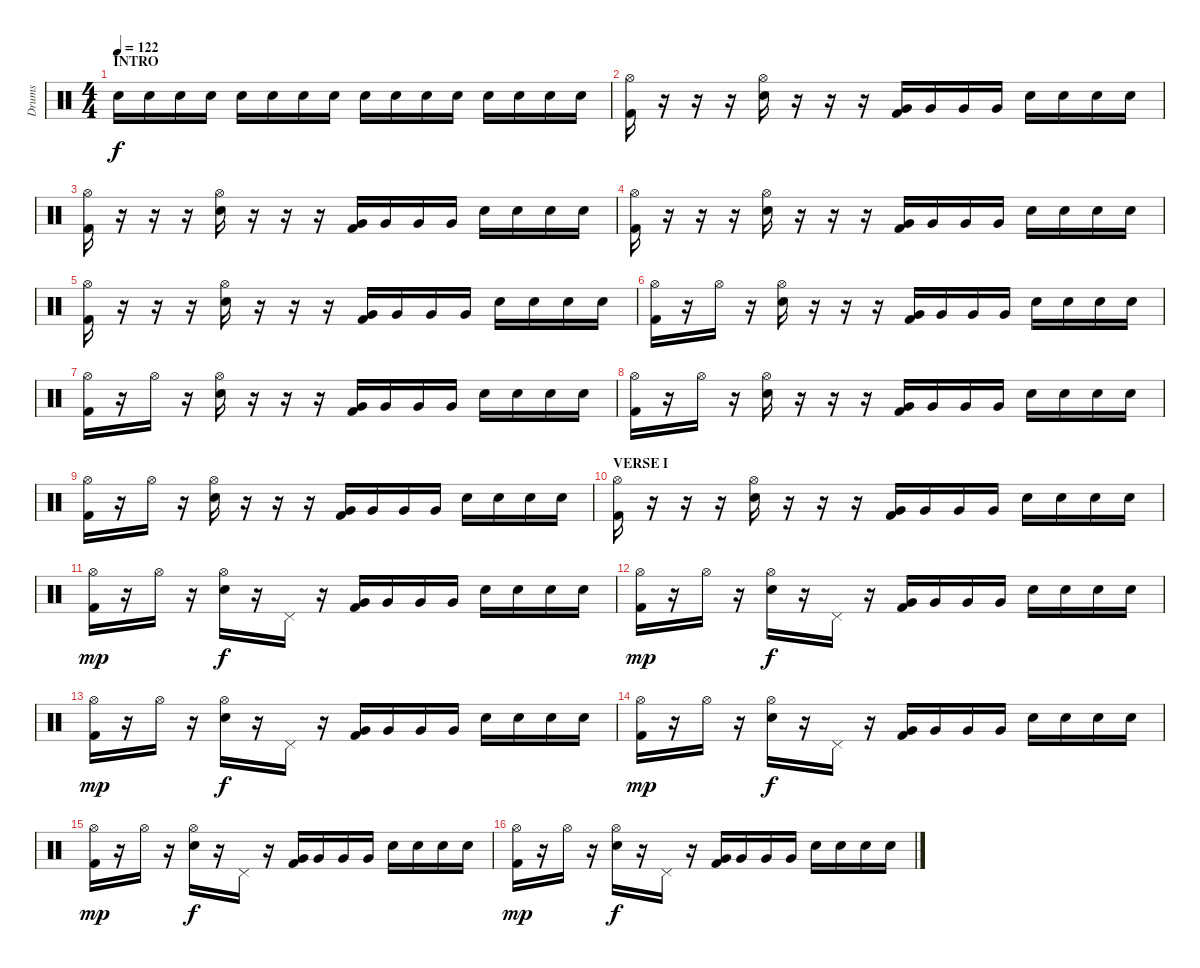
\track ("Drums" "Drums") {instrument percussion}
\staff {score}
\articulation defaults
\ts (4 4)
\section ("" "INTRO")
\tempo 122
\clef neutral
\ks c "Electric Snare (hit)".16{dy f} "Electric Snare (hit)".16 "Electric Snare (hit)".16 "Electric Snare (hit)".16 "Electric Snare (hit)".16 "Electric Snare (hit)".16 "Electric Snare (hit)".16 "Electric Snare (hit)".16 "Electric Snare (hit)".16 "Electric Snare (hit)".16 "Electric Snare (hit)".16 "Electric Snare (hit)".16 "Electric Snare (hit)".16 "Electric Snare (hit)".16 "Electric Snare (hit)".16 "Electric Snare (hit)".16
|
("Hi-Hat (open)" "Kick (hit) 2").16 r.16 r.16 r.16 ("Hi-Hat (open)" "Electric Snare (hit)").16 r.16 r.16 r.16 ("Very Low Tom (hit)" "Kick (hit) 2").16 "Very Low Tom (hit)".16 "Very Low Tom (hit)".16 "Very Low Tom (hit)".16 "Electric Snare (hit)".16 "Electric Snare (hit)".16 "Electric Snare (hit)".16 "Electric Snare (hit)".16 |
("Hi-Hat (open)" "Kick (hit) 2").16 r.16 r.16 r.16 ("Hi-Hat (open)" "Electric Snare (hit)").16 r.16 r.16 r.16 ("Very Low Tom (hit)" "Kick (hit) 2").16 "Very Low Tom (hit)".16 "Very Low Tom (hit)".16 "Very Low Tom (hit)".16 "Electric Snare (hit)".16 "Electric Snare (hit)".16 "Electric Snare (hit)".16 "Electric Snare (hit)".16 |
("Hi-Hat (open)" "Kick (hit) 2").16 r.16 r.16 r.16 ("Hi-Hat (open)" "Electric Snare (hit)").16 r.16 r.16 r.16 ("Very Low Tom (hit)" "Kick (hit) 2").16 "Very Low Tom (hit)".16 "Very Low Tom (hit)".16 "Very Low Tom (hit)".16 "Electric Snare (hit)".16 "Electric Snare (hit)".16 "Electric Snare (hit)".16 "Electric Snare (hit)".16 |
("Hi-Hat (open)" "Kick (hit) 2").16 r.16 r.16 r.16 ("Hi-Hat (open)" "Electric Snare (hit)").16 r.16 r.16 r.16 ("Very Low Tom (hit)" "Kick (hit) 2").16 "Very Low Tom (hit)".16 "Very Low Tom (hit)".16 "Very Low Tom (hit)".16 "Electric Snare (hit)".16 "Electric Snare (hit)".16 "Electric Snare (hit)".16 "Electric Snare (hit)".16 |
("Hi-Hat (open)" "Kick (hit) 2").16 r.16 "Hi-Hat (open)".16 r.16 ("Hi-Hat (open)" "Electric Snare (hit)").16 r.16 r.16 r.16 ("Very Low Tom (hit)" "Kick (hit) 2").16 "Very Low Tom (hit)".16 "Very Low Tom (hit)".16 "Very Low Tom (hit)".16 "Electric Snare (hit)".16 "Electric Snare (hit)".16 "Electric Snare (hit)".16 "Electric Snare (hit)".16 |
("Hi-Hat (open)" "Kick (hit) 2").16 r.16 "Hi-Hat (open)".16 r.16 ("Hi-Hat (open)" "Electric Snare (hit)").16 r.16 r.16 r.16 ("Very Low Tom (hit)" "Kick (hit) 2").16 "Very Low Tom (hit)".16 "Very Low Tom (hit)".16 "Very Low Tom (hit)".16 "Electric Snare (hit)".16 "Electric Snare (hit)".16 "Electric Snare (hit)".16 "Electric Snare (hit)".16 |
("Hi-Hat (open)" "Kick (hit) 2").16 r.16 "Hi-Hat (open)".16 r.16 ("Hi-Hat (open)" "Electric Snare (hit)").16 r.16 r.16 r.16 ("Very Low Tom (hit)" "Kick (hit) 2").16 "Very Low Tom (hit)".16 "Very Low Tom (hit)".16 "Very Low Tom (hit)".16 "Electric Snare (hit)".16 "Electric Snare (hit)".16 "Electric Snare (hit)".16 "Electric Snare (hit)".16 |
("Hi-Hat (open)" "Kick (hit) 2").16 r.16 "Hi-Hat (open)".16 r.16 ("Hi-Hat (open)" "Electric Snare (hit)").16 r.16 r.16 r.16 ("Very Low Tom (hit)" "Kick (hit) 2").16 "Very Low Tom (hit)".16 "Very Low Tom (hit)".16 "Very Low Tom (hit)".16 "Electric Snare (hit)".16 "Electric Snare (hit)".16 "Electric Snare (hit)".16 "Electric Snare (hit)".16 |
\section ("" "VERSE I")
("Hi-Hat (open)" "Kick (hit) 2").16 r.16 r.16 r.16 ("Hi-Hat (open)" "Electric Snare (hit)").16 r.16 r.16 r.16 ("Very Low Tom (hit)" "Kick (hit) 2").16 "Very Low Tom (hit)".16 "Very Low Tom (hit)".16 "Very Low Tom (hit)".16 "Electric Snare (hit)".16 "Electric Snare (hit)".16 "Electric Snare (hit)".16 "Electric Snare (hit)".16 |
("Hi-Hat (open)" "Kick (hit) 2").16{dy mp} r.16 "Hi-Hat (open)".16 r.16 ("Hi-Hat (open)" "Electric Snare (hit)").16{dy f} r.16 "Pedal Hi-Hat (hit)".16 r.16 ("Very Low Tom (hit)" "Kick (hit) 2").16 "Very Low Tom (hit)".16 "Very Low Tom (hit)".16 "Very Low Tom (hit)".16 "Electric Snare (hit)".16 "Electric Snare (hit)".16 "Electric Snare (hit)".16 "Electric Snare (hit)".16 |
("Hi-Hat (open)" "Kick (hit) 2").16{dy mp} r.16 "Hi-Hat (open)".16 r.16 ("Hi-Hat (open)" "Electric Snare (hit)").16{dy f} r.16 "Pedal Hi-Hat (hit)".16 r.16 ("Very Low Tom (hit)" "Kick (hit) 2").16 "Very Low Tom (hit)".16 "Very Low Tom (hit)".16 "Very Low Tom (hit)".16 "Electric Snare (hit)".16 "Electric Snare (hit)".16 "Electric Snare (hit)".16 "Electric Snare (hit)".16 |
("Hi-Hat (open)" "Kick (hit) 2").16{dy mp} r.16 "Hi-Hat (open)".16 r.16 ("Hi-Hat (open)" "Electric Snare (hit)").16{dy f} r.16 "Pedal Hi-Hat (hit)".16 r.16 ("Very Low Tom (hit)" "Kick (hit) 2").16 "Very Low Tom (hit)".16 "Very Low Tom (hit)".16 "Very Low Tom (hit)".16 "Electric Snare (hit)".16 "Electric Snare (hit)".16 "Electric Snare (hit)".16 "Electric Snare (hit)".16 |
("Hi-Hat (open)" "Kick (hit) 2").16{dy mp} r.16 "Hi-Hat (open)".16 r.16 ("Hi-Hat (open)" "Electric Snare (hit)").16{dy f} r.16 "Pedal Hi-Hat (hit)".16 r.16 ("Very Low Tom (hit)" "Kick (hit) 2").16 "Very Low Tom (hit)".16 "Very Low Tom (hit)".16 "Very Low Tom (hit)".16 "Electric Snare (hit)".16 "Electric Snare (hit)".16 "Electric Snare (hit)".16 "Electric Snare (hit)".16 |
("Hi-Hat (open)" "Kick (hit) 2").16{dy mp} r.16 "Hi-Hat (open)".16 r.16 ("Hi-Hat (open)" "Electric Snare (hit)").16{dy f} r.16 "Pedal Hi-Hat (hit)".16 r.16 ("Very Low Tom (hit)" "Kick (hit) 2").16 "Very Low Tom (hit)".16 "Very Low Tom (hit)".16 "Very Low Tom (hit)".16 "Electric Snare (hit)".16 "Electric Snare (hit)".16 "Electric Snare (hit)".16 "Electric Snare (hit)".16 |
("Hi-Hat (open)" "Kick (hit) 2").16{dy mp} r.16 "Hi-Hat (open)".16 r.16 ("Hi-Hat (open)" "Electric Snare (hit)").16{dy f} r.16 "Pedal Hi-Hat (hit)".16 r.16 ("Very Low Tom (hit)" "Kick (hit) 2").16 "Very Low Tom (hit)".16 "Very Low Tom (hit)".16 "Very Low Tom (hit)".16 "Electric Snare (hit)".16 "Electric Snare (hit)".16 "Electric Snare (hit)".16 "Electric Snare (hit)".16
